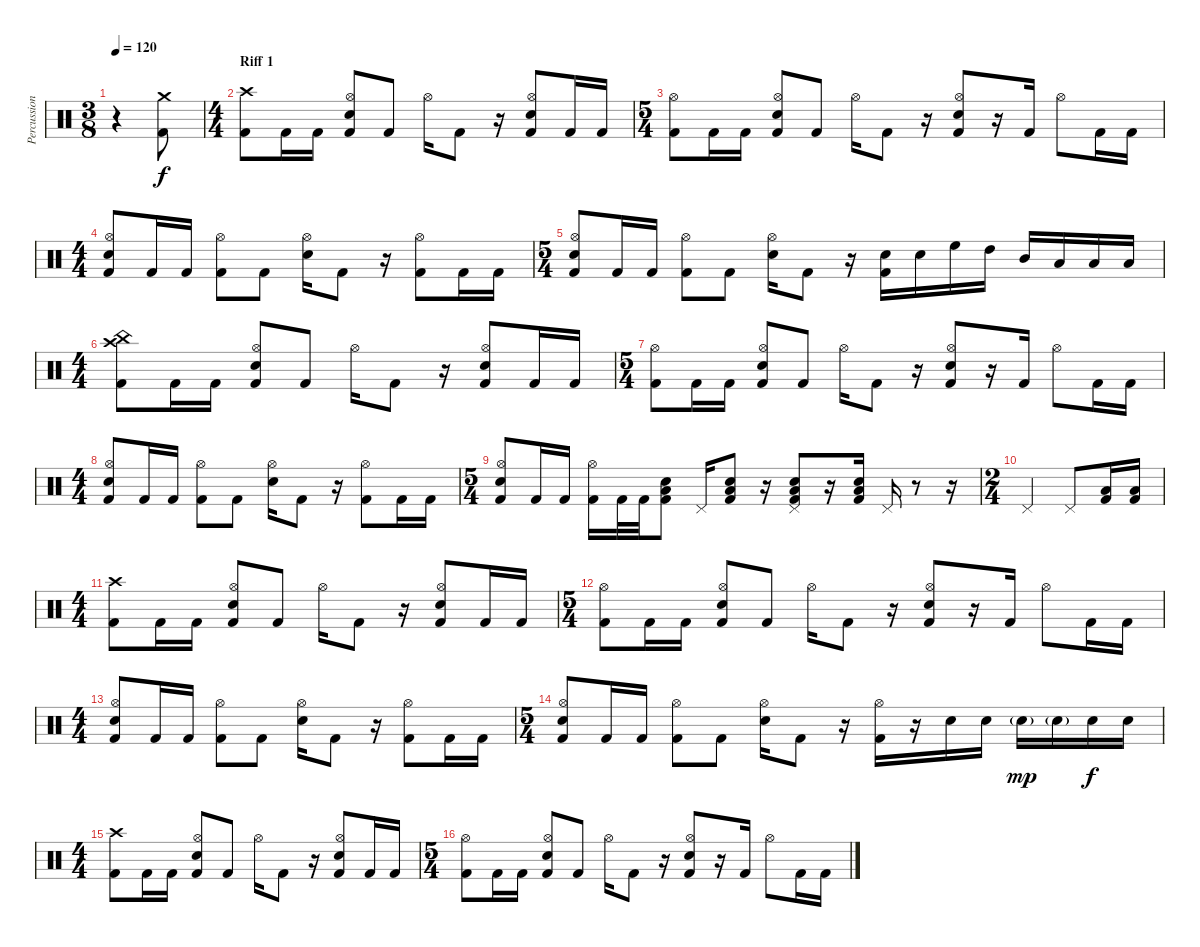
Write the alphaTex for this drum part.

\track ("Percussion" "Percussion") {instrument percussion}
\staff {score}
\articulation defaults
\ts (3 8)
\tempo 120
\clef neutral
\ks c
r.4{dy fff} ("Crash medium (hit)" "Kick (hit) 2").8{dy f} |
\ts (4 4)
\section ("" "Riff 1")
("Crash high (hit)" "Kick (hit) 2").8 "Kick (hit) 2".16 "Kick (hit) 2".16 ("Hi-Hat (open)" "Electric Snare (hit)" "Kick (hit) 2").8 "Kick (hit) 2".8 "Hi-Hat (open)".16 "Kick (hit) 2".8 r.16 ("Hi-Hat (open)" "Electric Snare (hit)" "Kick (hit) 2").8 "Kick (hit) 2".16 "Kick (hit) 2".16 |
\ts (5 4)
("Hi-Hat (open)" "Kick (hit) 2").8 "Kick (hit) 2".16 "Kick (hit) 2".16 ("Hi-Hat (open)" "Electric Snare (hit)" "Kick (hit) 2").8 "Kick (hit) 2".8 "Hi-Hat (open)".16 "Kick (hit) 2".8 r.16 ("Hi-Hat (open)" "Electric Snare (hit)" "Kick (hit) 2").8 r.16 "Kick (hit) 2".16 "Hi-Hat (open)".8 "Kick (hit) 2".16 "Kick (hit) 2".16 |
\ts (4 4)
("Hi-Hat (open)" "Electric Snare (hit)" "Kick (hit) 2").8 "Kick (hit) 2".16 "Kick (hit) 2".16 ("Hi-Hat (open)" "Kick (hit) 2").8 "Kick (hit) 2".8 ("Hi-Hat (open)" "Electric Snare (hit)").16 "Kick (hit) 2".8 r.16 ("Hi-Hat (open)" "Kick (hit) 2").8 "Kick (hit) 2".16 "Kick (hit) 2".16 |
\ts (5 4)
("Hi-Hat (open)" "Electric Snare (hit)" "Kick (hit) 2").8 "Kick (hit) 2".16 "Kick (hit) 2".16 ("Hi-Hat (open)" "Kick (hit) 2").8 "Kick (hit) 2".8 ("Hi-Hat (open)" "Electric Snare (hit)").16 "Kick (hit) 2".8 r.16 ("Electric Snare (hit)" "Kick (hit) 2").16 "Electric Snare (hit)".16 "High Floor Tom (hit)".16 "High Tom (hit)".16 "Mid Tom (hit)".16 "Low Tom (hit)".16 "Low Floor Tom (hit)".16 "Low Floor Tom (hit)".16 |
\ts (4 4)
("China (hit)" "Crash high (hit)" "Kick (hit) 2").8 "Kick (hit) 2".16 "Kick (hit) 2".16 ("Hi-Hat (open)" "Electric Snare (hit)" "Kick (hit) 2").8 "Kick (hit) 2".8 "Hi-Hat (open)".16 "Kick (hit) 2".8 r.16 ("Hi-Hat (open)" "Electric Snare (hit)" "Kick (hit) 2").8 "Kick (hit) 2".16 "Kick (hit) 2".16 |
\ts (5 4)
("Hi-Hat (open)" "Kick (hit) 2").8 "Kick (hit) 2".16 "Kick (hit) 2".16 ("Hi-Hat (open)" "Electric Snare (hit)" "Kick (hit) 2").8 "Kick (hit) 2".8 "Hi-Hat (open)".16 "Kick (hit) 2".8 r.16 ("Hi-Hat (open)" "Electric Snare (hit)" "Kick (hit) 2").8 r.16 "Kick (hit) 2".16 "Hi-Hat (open)".8 "Kick (hit) 2".16 "Kick (hit) 2".16 |
\ts (4 4)
("Hi-Hat (open)" "Electric Snare (hit)" "Kick (hit) 2").8 "Kick (hit) 2".16 "Kick (hit) 2".16 ("Hi-Hat (open)" "Kick (hit) 2").8 "Kick (hit) 2".8 ("Hi-Hat (open)" "Electric Snare (hit)").16 "Kick (hit) 2".8 r.16 ("Hi-Hat (open)" "Kick (hit) 2").8 "Kick (hit) 2".16 "Kick (hit) 2".16 |
\ts (5 4)
("Hi-Hat (open)" "Electric Snare (hit)" "Kick (hit) 2").8 "Kick (hit) 2".16 "Kick (hit) 2".16 ("Hi-Hat (open)" "Kick (hit) 2").16 "Kick (hit) 2".32 "Kick (hit) 2".32 ("Electric Snare (hit)" "Low Floor Tom (hit)" "Kick (hit) 2").8 "Pedal Hi-Hat (hit)".16 ("Electric Snare (hit)" "Low Floor Tom (hit)" "Kick (hit) 2").8 r.16 ("Pedal Hi-Hat (hit)" "Electric Snare (hit)" "Low Floor Tom (hit)" "Kick (hit) 2").8 r.16 ("Electric Snare (hit)" "Low Floor Tom (hit)" "Kick (hit) 2").16 "Pedal Hi-Hat (hit)".16 r.8 r.16 |
\ts (2 4)
"Pedal Hi-Hat (hit)".4 "Pedal Hi-Hat (hit)".8 ("Low Floor Tom (hit)" "Kick (hit) 2").16 ("Low Floor Tom (hit)" "Kick (hit) 2").16 |
\ts (4 4)
("Crash high (hit)" "Kick (hit) 2").8 "Kick (hit) 2".16 "Kick (hit) 2".16 ("Hi-Hat (open)" "Electric Snare (hit)" "Kick (hit) 2").8 "Kick (hit) 2".8 "Hi-Hat (open)".16 "Kick (hit) 2".8 r.16 ("Hi-Hat (open)" "Electric Snare (hit)" "Kick (hit) 2").8 "Kick (hit) 2".16 "Kick (hit) 2".16 |
\ts (5 4)
("Hi-Hat (open)" "Kick (hit) 2").8 "Kick (hit) 2".16 "Kick (hit) 2".16 ("Hi-Hat (open)" "Electric Snare (hit)" "Kick (hit) 2").8 "Kick (hit) 2".8 "Hi-Hat (open)".16 "Kick (hit) 2".8 r.16 ("Hi-Hat (open)" "Electric Snare (hit)" "Kick (hit) 2").8 r.16 "Kick (hit) 2".16 "Hi-Hat (open)".8 "Kick (hit) 2".16 "Kick (hit) 2".16 |
\ts (4 4)
("Hi-Hat (open)" "Electric Snare (hit)" "Kick (hit) 2").8 "Kick (hit) 2".16 "Kick (hit) 2".16 ("Hi-Hat (open)" "Kick (hit) 2").8 "Kick (hit) 2".8 ("Hi-Hat (open)" "Electric Snare (hit)").16 "Kick (hit) 2".8 r.16 ("Hi-Hat (open)" "Kick (hit) 2").8 "Kick (hit) 2".16 "Kick (hit) 2".16 |
\ts (5 4)
("Hi-Hat (open)" "Electric Snare (hit)" "Kick (hit) 2").8 "Kick (hit) 2".16 "Kick (hit) 2".16 ("Hi-Hat (open)" "Kick (hit) 2").8 "Kick (hit) 2".8 ("Hi-Hat (open)" "Electric Snare (hit)").16 "Kick (hit) 2".8 r.16 ("Hi-Hat (open)" "Kick (hit) 2").16 r.16 "Electric Snare (hit)".16 "Electric Snare (hit)".16 "Electric Snare (hit)"{g}.16{dy mp} "Electric Snare (hit)"{g}.16 "Electric Snare (hit)".16{dy f} "Electric Snare (hit)".16 |
\ts (4 4)
("Crash high (hit)" "Kick (hit) 2").8 "Kick (hit) 2".16 "Kick (hit) 2".16 ("Hi-Hat (open)" "Electric Snare (hit)" "Kick (hit) 2").8 "Kick (hit) 2".8 "Hi-Hat (open)".16 "Kick (hit) 2".8 r.16 ("Hi-Hat (open)" "Electric Snare (hit)" "Kick (hit) 2").8 "Kick (hit) 2".16 "Kick (hit) 2".16 |
\ts (5 4)
("Hi-Hat (open)" "Kick (hit) 2").8 "Kick (hit) 2".16 "Kick (hit) 2".16 ("Hi-Hat (open)" "Electric Snare (hit)" "Kick (hit) 2").8 "Kick (hit) 2".8 "Hi-Hat (open)".16 "Kick (hit) 2".8 r.16 ("Hi-Hat (open)" "Electric Snare (hit)" "Kick (hit) 2").8 r.16 "Kick (hit) 2".16 "Hi-Hat (open)".8 "Kick (hit) 2".16 "Kick (hit) 2".16
